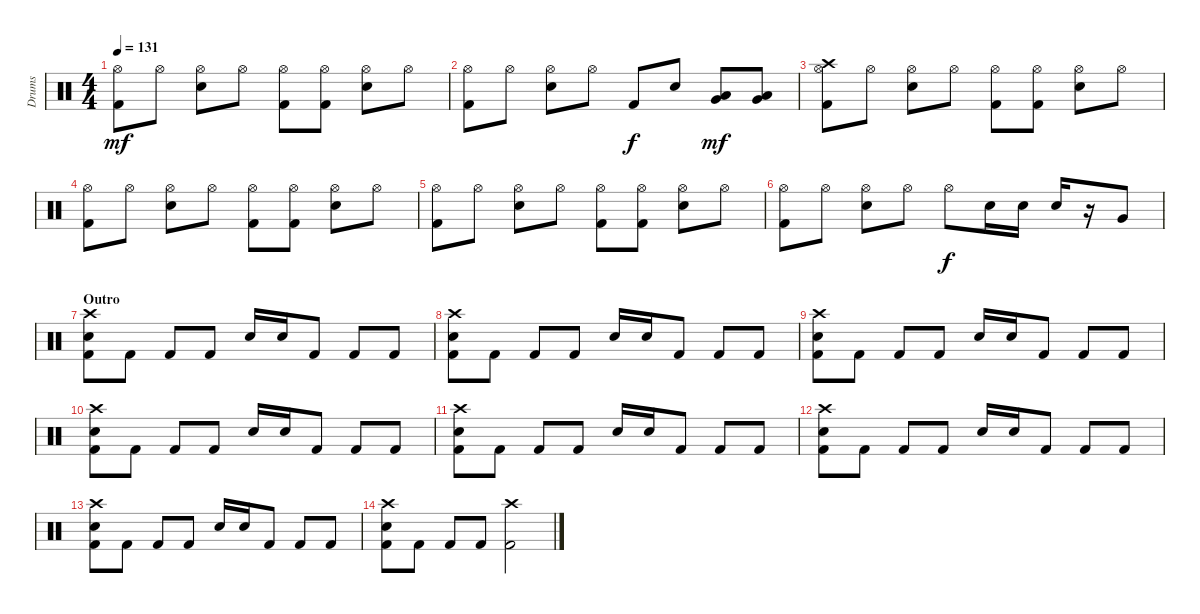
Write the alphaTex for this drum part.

\track ("Drums" "Drums") {instrument percussion}
\staff {score}
\articulation defaults
\ts (4 4)
\tempo 131
\clef neutral
\ks c
("Kick (hit) 2" "Hi-Hat (open)").8{dy mf} "Hi-Hat (open)".8 ("Electric Snare (hit)" "Hi-Hat (open)").8 "Hi-Hat (open)".8 ("Kick (hit) 2" "Hi-Hat (open)").8 ("Kick (hit) 2" "Hi-Hat (open)").8 ("Electric Snare (hit)" "Hi-Hat (open)").8 "Hi-Hat (open)".8 |
("Kick (hit) 2" "Hi-Hat (open)").8 "Hi-Hat (open)".8 ("Electric Snare (hit)" "Hi-Hat (open)").8 "Hi-Hat (open)".8 "Kick (hit) 2".8{dy f} "Electric Snare (hit)".8 ("Low Tom (hit)" "Very Low Tom (hit)").8{dy mf} ("Low Tom (hit)" "Very Low Tom (hit)").8 |
("Kick (hit) 2" "Crash high (hit)" "Hi-Hat (open)").8 "Hi-Hat (open)".8 ("Electric Snare (hit)" "Hi-Hat (open)").8 "Hi-Hat (open)".8 ("Kick (hit) 2" "Hi-Hat (open)").8 ("Kick (hit) 2" "Hi-Hat (open)").8 ("Electric Snare (hit)" "Hi-Hat (open)").8 "Hi-Hat (open)".8 |
("Kick (hit) 2" "Hi-Hat (open)").8 "Hi-Hat (open)".8 ("Electric Snare (hit)" "Hi-Hat (open)").8 "Hi-Hat (open)".8 ("Kick (hit) 2" "Hi-Hat (open)").8 ("Kick (hit) 2" "Hi-Hat (open)").8 ("Electric Snare (hit)" "Hi-Hat (open)").8 "Hi-Hat (open)".8 |
("Kick (hit) 2" "Hi-Hat (open)").8 "Hi-Hat (open)".8 ("Electric Snare (hit)" "Hi-Hat (open)").8 "Hi-Hat (open)".8 ("Kick (hit) 2" "Hi-Hat (open)").8 ("Kick (hit) 2" "Hi-Hat (open)").8 ("Electric Snare (hit)" "Hi-Hat (open)").8 "Hi-Hat (open)".8 |
("Kick (hit) 2" "Hi-Hat (open)").8 "Hi-Hat (open)".8 ("Electric Snare (hit)" "Hi-Hat (open)").8 "Hi-Hat (open)".8 "Hi-Hat (open)".8{dy f} "Electric Snare (hit)".16 "Electric Snare (hit)".16 "Electric Snare (hit)".16 r.16 "Very Low Tom (hit)".8 |
\section ("" "Outro")
("Electric Snare (hit)" "Kick (hit) 2" "Crash high (hit)").8 "Kick (hit) 2".8 "Kick (hit) 2".8 "Kick (hit) 2".8 "Electric Snare (hit)".16 "Electric Snare (hit)".16 "Kick (hit) 2".8 "Kick (hit) 2".8 "Kick (hit) 2".8 |
("Electric Snare (hit)" "Kick (hit) 2" "Crash high (hit)").8 "Kick (hit) 2".8 "Kick (hit) 2".8 "Kick (hit) 2".8 "Electric Snare (hit)".16 "Electric Snare (hit)".16 "Kick (hit) 2".8 "Kick (hit) 2".8 "Kick (hit) 2".8 |
("Electric Snare (hit)" "Kick (hit) 2" "Crash high (hit)").8 "Kick (hit) 2".8 "Kick (hit) 2".8 "Kick (hit) 2".8 "Electric Snare (hit)".16 "Electric Snare (hit)".16 "Kick (hit) 2".8 "Kick (hit) 2".8 "Kick (hit) 2".8 |
("Electric Snare (hit)" "Kick (hit) 2" "Crash high (hit)").8 "Kick (hit) 2".8 "Kick (hit) 2".8 "Kick (hit) 2".8 "Electric Snare (hit)".16 "Electric Snare (hit)".16 "Kick (hit) 2".8 "Kick (hit) 2".8 "Kick (hit) 2".8 |
("Electric Snare (hit)" "Kick (hit) 2" "Crash high (hit)").8 "Kick (hit) 2".8 "Kick (hit) 2".8 "Kick (hit) 2".8 "Electric Snare (hit)".16 "Electric Snare (hit)".16 "Kick (hit) 2".8 "Kick (hit) 2".8 "Kick (hit) 2".8 |
("Electric Snare (hit)" "Kick (hit) 2" "Crash high (hit)").8 "Kick (hit) 2".8 "Kick (hit) 2".8 "Kick (hit) 2".8 "Electric Snare (hit)".16 "Electric Snare (hit)".16 "Kick (hit) 2".8 "Kick (hit) 2".8 "Kick (hit) 2".8 |
("Electric Snare (hit)" "Kick (hit) 2" "Crash high (hit)").8 "Kick (hit) 2".8 "Kick (hit) 2".8 "Kick (hit) 2".8 "Electric Snare (hit)".16 "Electric Snare (hit)".16 "Kick (hit) 2".8 "Kick (hit) 2".8 "Kick (hit) 2".8 |
("Electric Snare (hit)" "Kick (hit) 2" "Crash high (hit)").8 "Kick (hit) 2".8 "Kick (hit) 2".8 "Kick (hit) 2".8 ("Kick (hit) 2" "Crash high (hit)").2
